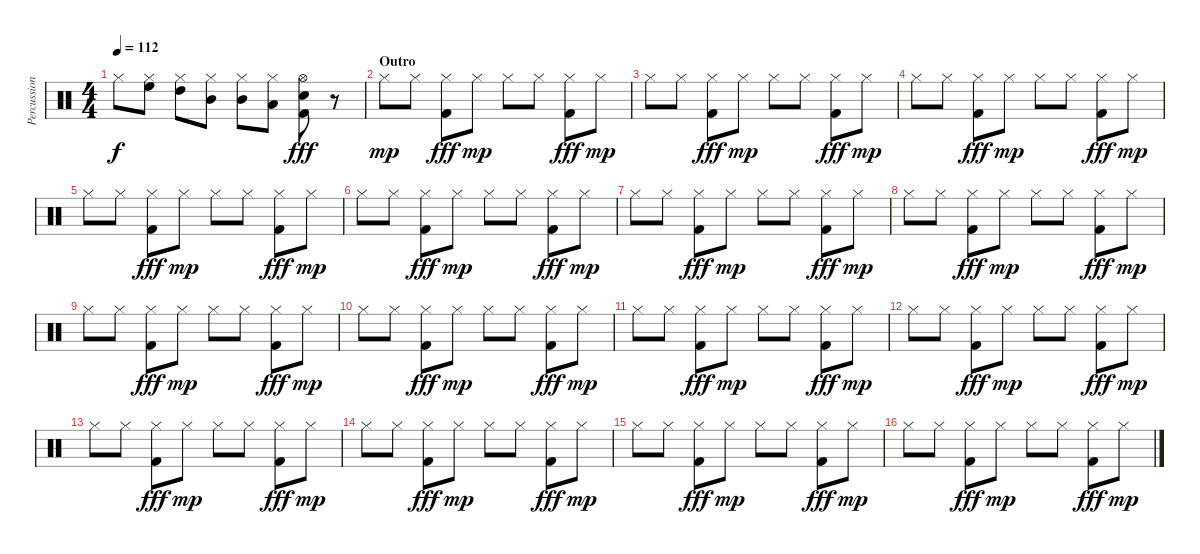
\track ("Percussions" "Percussion") {instrument percussion}
\staff {score}
\articulation defaults
\ts (4 4)
\tempo 112
\clef neutral
\ks c "Hi-Hat (closed)".8{dy f}
("Hi-Hat (closed)" "High Floor Tom (hit)").8 ("Hi-Hat (closed)" "High Tom (hit)").8 ("Hi-Hat (closed)" "Mid Tom (hit)").8 ("Hi-Hat (closed)" "Mid Tom (hit)").8 ("Hi-Hat (closed)" "Low Tom (hit)").8 ("Hi-Hat (open)" "Electric Snare (hit)" "Kick (hit) 2").8{dy fff} r.8 |
\section ("" "Outro")
"Hi-Hat (closed)".8{dy mp} "Hi-Hat (closed)".8 ("Hi-Hat (closed)" "Kick (hit) 2").8{dy fff} "Hi-Hat (closed)".8{dy mp} "Hi-Hat (closed)".8 "Hi-Hat (closed)".8 ("Hi-Hat (closed)" "Kick (hit) 2").8{dy fff} "Hi-Hat (closed)".8{dy mp} |
"Hi-Hat (closed)".8 "Hi-Hat (closed)".8 ("Hi-Hat (closed)" "Kick (hit) 2").8{dy fff} "Hi-Hat (closed)".8{dy mp} "Hi-Hat (closed)".8 "Hi-Hat (closed)".8 ("Hi-Hat (closed)" "Kick (hit) 2").8{dy fff} "Hi-Hat (closed)".8{dy mp} |
"Hi-Hat (closed)".8 "Hi-Hat (closed)".8 ("Hi-Hat (closed)" "Kick (hit) 2").8{dy fff} "Hi-Hat (closed)".8{dy mp} "Hi-Hat (closed)".8 "Hi-Hat (closed)".8 ("Hi-Hat (closed)" "Kick (hit) 2").8{dy fff} "Hi-Hat (closed)".8{dy mp} |
"Hi-Hat (closed)".8 "Hi-Hat (closed)".8 ("Hi-Hat (closed)" "Kick (hit) 2").8{dy fff} "Hi-Hat (closed)".8{dy mp} "Hi-Hat (closed)".8 "Hi-Hat (closed)".8 ("Hi-Hat (closed)" "Kick (hit) 2").8{dy fff} "Hi-Hat (closed)".8{dy mp} |
"Hi-Hat (closed)".8{volume 11} "Hi-Hat (closed)".8 ("Hi-Hat (closed)" "Kick (hit) 2").8{dy fff} "Hi-Hat (closed)".8{dy mp} "Hi-Hat (closed)".8 "Hi-Hat (closed)".8 ("Hi-Hat (closed)" "Kick (hit) 2").8{dy fff} "Hi-Hat (closed)".8{dy mp} |
"Hi-Hat (closed)".8 "Hi-Hat (closed)".8 ("Hi-Hat (closed)" "Kick (hit) 2").8{dy fff} "Hi-Hat (closed)".8{dy mp} "Hi-Hat (closed)".8 "Hi-Hat (closed)".8 ("Hi-Hat (closed)" "Kick (hit) 2").8{dy fff} "Hi-Hat (closed)".8{dy mp} |
"Hi-Hat (closed)".8 "Hi-Hat (closed)".8 ("Hi-Hat (closed)" "Kick (hit) 2").8{dy fff} "Hi-Hat (closed)".8{dy mp} "Hi-Hat (closed)".8 "Hi-Hat (closed)".8 ("Hi-Hat (closed)" "Kick (hit) 2").8{dy fff} "Hi-Hat (closed)".8{dy mp} |
"Hi-Hat (closed)".8 "Hi-Hat (closed)".8 ("Hi-Hat (closed)" "Kick (hit) 2").8{dy fff} "Hi-Hat (closed)".8{dy mp} "Hi-Hat (closed)".8 "Hi-Hat (closed)".8 ("Hi-Hat (closed)" "Kick (hit) 2").8{dy fff} "Hi-Hat (closed)".8{dy mp} |
"Hi-Hat (closed)".8{volume 6} "Hi-Hat (closed)".8 ("Hi-Hat (closed)" "Kick (hit) 2").8{dy fff} "Hi-Hat (closed)".8{dy mp} "Hi-Hat (closed)".8 "Hi-Hat (closed)".8 ("Hi-Hat (closed)" "Kick (hit) 2").8{dy fff} "Hi-Hat (closed)".8{dy mp} |
"Hi-Hat (closed)".8 "Hi-Hat (closed)".8 ("Hi-Hat (closed)" "Kick (hit) 2").8{dy fff} "Hi-Hat (closed)".8{dy mp} "Hi-Hat (closed)".8 "Hi-Hat (closed)".8 ("Hi-Hat (closed)" "Kick (hit) 2").8{dy fff} "Hi-Hat (closed)".8{dy mp} |
"Hi-Hat (closed)".8 "Hi-Hat (closed)".8 ("Hi-Hat (closed)" "Kick (hit) 2").8{dy fff} "Hi-Hat (closed)".8{dy mp} "Hi-Hat (closed)".8 "Hi-Hat (closed)".8 ("Hi-Hat (closed)" "Kick (hit) 2").8{dy fff} "Hi-Hat (closed)".8{dy mp} |
"Hi-Hat (closed)".8 "Hi-Hat (closed)".8 ("Hi-Hat (closed)" "Kick (hit) 2").8{dy fff} "Hi-Hat (closed)".8{dy mp} "Hi-Hat (closed)".8 "Hi-Hat (closed)".8 ("Hi-Hat (closed)" "Kick (hit) 2").8{dy fff} "Hi-Hat (closed)".8{dy mp} |
"Hi-Hat (closed)".8{volume 0} "Hi-Hat (closed)".8 ("Hi-Hat (closed)" "Kick (hit) 2").8{dy fff} "Hi-Hat (closed)".8{dy mp} "Hi-Hat (closed)".8 "Hi-Hat (closed)".8 ("Hi-Hat (closed)" "Kick (hit) 2").8{dy fff} "Hi-Hat (closed)".8{dy mp} |
"Hi-Hat (closed)".8 "Hi-Hat (closed)".8 ("Hi-Hat (closed)" "Kick (hit) 2").8{dy fff} "Hi-Hat (closed)".8{dy mp} "Hi-Hat (closed)".8 "Hi-Hat (closed)".8 ("Hi-Hat (closed)" "Kick (hit) 2").8{dy fff} "Hi-Hat (closed)".8{dy mp} |
"Hi-Hat (closed)".8 "Hi-Hat (closed)".8 ("Hi-Hat (closed)" "Kick (hit) 2").8{dy fff} "Hi-Hat (closed)".8{dy mp} "Hi-Hat (closed)".8 "Hi-Hat (closed)".8 ("Hi-Hat (closed)" "Kick (hit) 2").8{dy fff} "Hi-Hat (closed)".8{dy mp}
